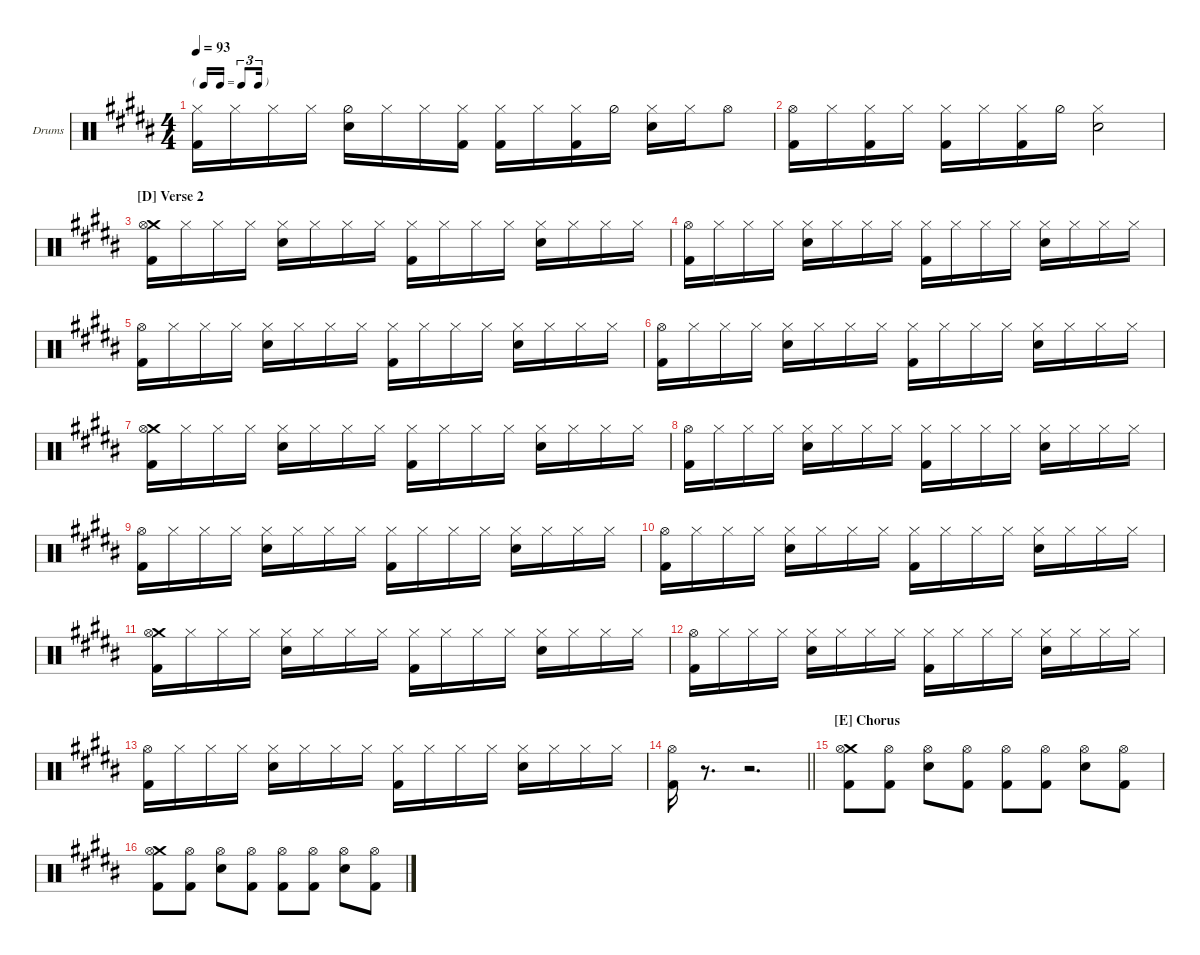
\hideDynamics
\bracketExtendMode groupsimilarinstruments
\firstSystemTrackNameOrientation horizontal
\otherSystemsTrackNameOrientation horizontal
\track ("Drumkit" "Drums") {multiBarRest instrument percussion}
\staff {score}
\articulation defaults
\ts (4 4)
\tf triplet16th
\tempo 93
\clef neutral
\ks b
("Kick (hit) 2"{acc forcenatural} "Hi-Hat (closed)"{acc forcenatural}).16{dy f} "Hi-Hat (closed)"{acc forcenatural}.16 "Hi-Hat (closed)"{acc forcenatural}.16{dy mf} "Hi-Hat (closed)"{acc forcenatural}.16{dy mp} ("Hi-Hat (half)"{acc forcenatural} "Snare (hit) 2"{acc forcenatural}).16{dy f} "Hi-Hat (closed)"{acc forcenatural}.16 "Hi-Hat (closed)"{acc forcenatural}.16{dy mf} ("Hi-Hat (closed)"{acc forcenatural} "Kick (hit) 2"{acc forcenatural}).16{dy mp} ("Hi-Hat (closed)"{acc forcenatural} "Kick (hit) 2"{acc forcenatural}).16{dy f} "Hi-Hat (closed)"{acc forcenatural}.16{dy mp} ("Hi-Hat (closed)"{acc forcenatural} "Kick (hit) 2"{acc forcenatural}).16{dy mf} "Hi-Hat (half)"{acc forcenatural}.16{dy mp} ("Hi-Hat (closed)"{acc forcenatural} "Snare (hit) 2"{acc forcenatural}).16{dy f} "Hi-Hat (closed)"{acc forcenatural}.16{dy mp} "Hi-Hat (open)"{acc forcenatural}.8{dy mf} |
("Hi-Hat (open)"{acc forcenatural} "Kick (hit) 2"{acc forcenatural}).16{dy f} "Hi-Hat (closed)"{acc forcenatural}.16{dy mp} ("Hi-Hat (closed)"{acc forcenatural} "Kick (hit) 2"{acc forcenatural}).16{dy mf} "Hi-Hat (closed)"{acc forcenatural}.16{dy mp} ("Hi-Hat (closed)"{acc forcenatural} "Kick (hit) 2"{acc forcenatural}).16{dy f} "Hi-Hat (closed)"{acc forcenatural}.16{dy mp} ("Hi-Hat (closed)"{acc forcenatural} "Kick (hit) 2"{acc forcenatural}).16{dy mf} "Hi-Hat (half)"{acc forcenatural}.16{dy mp} ("Hi-Hat (closed)"{acc forcenatural} "Snare (hit) 2"{acc forcenatural}).2{dy f} |
\section ("D" "Verse 2")
("Crash medium (hit)"{acc forcenatural} "Hi-Hat (open)"{acc forcenatural} "Kick (hit) 2"{acc forcenatural}).16 "Hi-Hat (closed)"{acc forcenatural}.16{dy mp} "Hi-Hat (closed)"{acc forcenatural}.16{dy mf} "Hi-Hat (closed)"{acc forcenatural}.16{dy mp} ("Hi-Hat (closed)"{acc forcenatural} "Snare (hit) 2"{acc forcenatural}).16{dy f} "Hi-Hat (closed)"{acc forcenatural}.16{dy mp} "Hi-Hat (closed)"{acc forcenatural}.16{dy mf} "Hi-Hat (closed)"{acc forcenatural}.16{dy mp} ("Hi-Hat (closed)"{acc forcenatural} "Kick (hit) 2"{acc forcenatural}).16{dy f} "Hi-Hat (closed)"{acc forcenatural}.16{dy mp} "Hi-Hat (closed)"{acc forcenatural}.16{dy mf} "Hi-Hat (closed)"{acc forcenatural}.16{dy mp} ("Hi-Hat (closed)"{acc forcenatural} "Snare (hit) 2"{acc forcenatural}).16{dy f} "Hi-Hat (closed)"{acc forcenatural}.16{dy mp} "Hi-Hat (closed)"{acc forcenatural}.16{dy mf} "Hi-Hat (closed)"{acc forcenatural}.16{dy mp} |
("Hi-Hat (open)"{acc forcenatural} "Kick (hit) 2"{acc forcenatural}).16{dy f} "Hi-Hat (closed)"{acc forcenatural}.16{dy mp} "Hi-Hat (closed)"{acc forcenatural}.16{dy mf} "Hi-Hat (closed)"{acc forcenatural}.16{dy mp} ("Hi-Hat (closed)"{acc forcenatural} "Snare (hit) 2"{acc forcenatural}).16{dy f} "Hi-Hat (closed)"{acc forcenatural}.16{dy mp} "Hi-Hat (closed)"{acc forcenatural}.16{dy mf} "Hi-Hat (closed)"{acc forcenatural}.16{dy mp} ("Hi-Hat (closed)"{acc forcenatural} "Kick (hit) 2"{acc forcenatural}).16{dy f} "Hi-Hat (closed)"{acc forcenatural}.16{dy mp} "Hi-Hat (closed)"{acc forcenatural}.16{dy mf} "Hi-Hat (closed)"{acc forcenatural}.16{dy mp} ("Hi-Hat (closed)"{acc forcenatural} "Snare (hit) 2"{acc forcenatural}).16{dy f} "Hi-Hat (closed)"{acc forcenatural}.16{dy mp} "Hi-Hat (closed)"{acc forcenatural}.16{dy mf} "Hi-Hat (closed)"{acc forcenatural}.16{dy mp} |
("Hi-Hat (open)"{acc forcenatural} "Kick (hit) 2"{acc forcenatural}).16{dy f} "Hi-Hat (closed)"{acc forcenatural}.16{dy mp} "Hi-Hat (closed)"{acc forcenatural}.16{dy mf} "Hi-Hat (closed)"{acc forcenatural}.16{dy mp} ("Hi-Hat (closed)"{acc forcenatural} "Snare (hit) 2"{acc forcenatural}).16{dy f} "Hi-Hat (closed)"{acc forcenatural}.16{dy mp} "Hi-Hat (closed)"{acc forcenatural}.16{dy mf} "Hi-Hat (closed)"{acc forcenatural}.16{dy mp} ("Hi-Hat (closed)"{acc forcenatural} "Kick (hit) 2"{acc forcenatural}).16{dy f} "Hi-Hat (closed)"{acc forcenatural}.16{dy mp} "Hi-Hat (closed)"{acc forcenatural}.16{dy mf} "Hi-Hat (closed)"{acc forcenatural}.16{dy mp} ("Hi-Hat (closed)"{acc forcenatural} "Snare (hit) 2"{acc forcenatural}).16{dy f} "Hi-Hat (closed)"{acc forcenatural}.16{dy mp} "Hi-Hat (closed)"{acc forcenatural}.16{dy mf} "Hi-Hat (closed)"{acc forcenatural}.16{dy mp} |
("Hi-Hat (open)"{acc forcenatural} "Kick (hit) 2"{acc forcenatural}).16{dy f} "Hi-Hat (closed)"{acc forcenatural}.16{dy mp} "Hi-Hat (closed)"{acc forcenatural}.16{dy mf} "Hi-Hat (closed)"{acc forcenatural}.16{dy mp} ("Hi-Hat (closed)"{acc forcenatural} "Snare (hit) 2"{acc forcenatural}).16{dy f} "Hi-Hat (closed)"{acc forcenatural}.16{dy mp} "Hi-Hat (closed)"{acc forcenatural}.16{dy mf} "Hi-Hat (closed)"{acc forcenatural}.16{dy mp} ("Hi-Hat (closed)"{acc forcenatural} "Kick (hit) 2"{acc forcenatural}).16{dy f} "Hi-Hat (closed)"{acc forcenatural}.16{dy mp} "Hi-Hat (closed)"{acc forcenatural}.16{dy mf} "Hi-Hat (closed)"{acc forcenatural}.16{dy mp} ("Hi-Hat (closed)"{acc forcenatural} "Snare (hit) 2"{acc forcenatural}).16{dy f} "Hi-Hat (closed)"{acc forcenatural}.16{dy mp} "Hi-Hat (closed)"{acc forcenatural}.16{dy mf} "Hi-Hat (closed)"{acc forcenatural}.16{dy mp} |
("Crash medium (hit)"{acc forcenatural} "Hi-Hat (open)"{acc forcenatural} "Kick (hit) 2"{acc forcenatural}).16{dy f} "Hi-Hat (closed)"{acc forcenatural}.16{dy mp} "Hi-Hat (closed)"{acc forcenatural}.16{dy mf} "Hi-Hat (closed)"{acc forcenatural}.16{dy mp} ("Hi-Hat (closed)"{acc forcenatural} "Snare (hit) 2"{acc forcenatural}).16{dy f} "Hi-Hat (closed)"{acc forcenatural}.16{dy mp} "Hi-Hat (closed)"{acc forcenatural}.16{dy mf} "Hi-Hat (closed)"{acc forcenatural}.16{dy mp} ("Hi-Hat (closed)"{acc forcenatural} "Kick (hit) 2"{acc forcenatural}).16{dy f} "Hi-Hat (closed)"{acc forcenatural}.16{dy mp} "Hi-Hat (closed)"{acc forcenatural}.16{dy mf} "Hi-Hat (closed)"{acc forcenatural}.16{dy mp} ("Hi-Hat (closed)"{acc forcenatural} "Snare (hit) 2"{acc forcenatural}).16{dy f} "Hi-Hat (closed)"{acc forcenatural}.16{dy mp} "Hi-Hat (closed)"{acc forcenatural}.16{dy mf} "Hi-Hat (closed)"{acc forcenatural}.16{dy mp} |
("Hi-Hat (open)"{acc forcenatural} "Kick (hit) 2"{acc forcenatural}).16{dy f} "Hi-Hat (closed)"{acc forcenatural}.16{dy mp} "Hi-Hat (closed)"{acc forcenatural}.16{dy mf} "Hi-Hat (closed)"{acc forcenatural}.16{dy mp} ("Hi-Hat (closed)"{acc forcenatural} "Snare (hit) 2"{acc forcenatural}).16{dy f} "Hi-Hat (closed)"{acc forcenatural}.16{dy mp} "Hi-Hat (closed)"{acc forcenatural}.16{dy mf} "Hi-Hat (closed)"{acc forcenatural}.16{dy mp} ("Hi-Hat (closed)"{acc forcenatural} "Kick (hit) 2"{acc forcenatural}).16{dy f} "Hi-Hat (closed)"{acc forcenatural}.16{dy mp} "Hi-Hat (closed)"{acc forcenatural}.16{dy mf} "Hi-Hat (closed)"{acc forcenatural}.16{dy mp} ("Hi-Hat (closed)"{acc forcenatural} "Snare (hit) 2"{acc forcenatural}).16{dy f} "Hi-Hat (closed)"{acc forcenatural}.16{dy mp} "Hi-Hat (closed)"{acc forcenatural}.16{dy mf} "Hi-Hat (closed)"{acc forcenatural}.16{dy mp} |
("Hi-Hat (open)"{acc forcenatural} "Kick (hit) 2"{acc forcenatural}).16{dy f} "Hi-Hat (closed)"{acc forcenatural}.16{dy mp} "Hi-Hat (closed)"{acc forcenatural}.16{dy mf} "Hi-Hat (closed)"{acc forcenatural}.16{dy mp} ("Hi-Hat (closed)"{acc forcenatural} "Snare (hit) 2"{acc forcenatural}).16{dy f} "Hi-Hat (closed)"{acc forcenatural}.16{dy mp} "Hi-Hat (closed)"{acc forcenatural}.16{dy mf} "Hi-Hat (closed)"{acc forcenatural}.16{dy mp} ("Hi-Hat (closed)"{acc forcenatural} "Kick (hit) 2"{acc forcenatural}).16{dy f} "Hi-Hat (closed)"{acc forcenatural}.16{dy mp} "Hi-Hat (closed)"{acc forcenatural}.16{dy mf} "Hi-Hat (closed)"{acc forcenatural}.16{dy mp} ("Hi-Hat (closed)"{acc forcenatural} "Snare (hit) 2"{acc forcenatural}).16{dy f} "Hi-Hat (closed)"{acc forcenatural}.16{dy mp} "Hi-Hat (closed)"{acc forcenatural}.16{dy mf} "Hi-Hat (closed)"{acc forcenatural}.16{dy mp} |
("Hi-Hat (open)"{acc forcenatural} "Kick (hit) 2"{acc forcenatural}).16{dy f} "Hi-Hat (closed)"{acc forcenatural}.16{dy mp} "Hi-Hat (closed)"{acc forcenatural}.16{dy mf} "Hi-Hat (closed)"{acc forcenatural}.16{dy mp} ("Hi-Hat (closed)"{acc forcenatural} "Snare (hit) 2"{acc forcenatural}).16{dy f} "Hi-Hat (closed)"{acc forcenatural}.16{dy mp} "Hi-Hat (closed)"{acc forcenatural}.16{dy mf} "Hi-Hat (closed)"{acc forcenatural}.16{dy mp} ("Hi-Hat (closed)"{acc forcenatural} "Kick (hit) 2"{acc forcenatural}).16{dy f} "Hi-Hat (closed)"{acc forcenatural}.16{dy mp} "Hi-Hat (closed)"{acc forcenatural}.16{dy mf} "Hi-Hat (closed)"{acc forcenatural}.16{dy mp} ("Hi-Hat (closed)"{acc forcenatural} "Snare (hit) 2"{acc forcenatural}).16{dy f} "Hi-Hat (closed)"{acc forcenatural}.16{dy mp} "Hi-Hat (closed)"{acc forcenatural}.16{dy mf} "Hi-Hat (closed)"{acc forcenatural}.16{dy mp} |
("Crash medium (hit)"{acc forcenatural} "Hi-Hat (open)"{acc forcenatural} "Kick (hit) 2"{acc forcenatural}).16{dy f} "Hi-Hat (closed)"{acc forcenatural}.16{dy mp} "Hi-Hat (closed)"{acc forcenatural}.16{dy mf} "Hi-Hat (closed)"{acc forcenatural}.16{dy mp} ("Hi-Hat (closed)"{acc forcenatural} "Snare (hit) 2"{acc forcenatural}).16{dy f} "Hi-Hat (closed)"{acc forcenatural}.16{dy mp} "Hi-Hat (closed)"{acc forcenatural}.16{dy mf} "Hi-Hat (closed)"{acc forcenatural}.16{dy mp} ("Hi-Hat (closed)"{acc forcenatural} "Kick (hit) 2"{acc forcenatural}).16{dy f} "Hi-Hat (closed)"{acc forcenatural}.16{dy mp} "Hi-Hat (closed)"{acc forcenatural}.16{dy mf} "Hi-Hat (closed)"{acc forcenatural}.16{dy mp} ("Hi-Hat (closed)"{acc forcenatural} "Snare (hit) 2"{acc forcenatural}).16{dy f} "Hi-Hat (closed)"{acc forcenatural}.16{dy mp} "Hi-Hat (closed)"{acc forcenatural}.16{dy mf} "Hi-Hat (closed)"{acc forcenatural}.16{dy mp} |
("Hi-Hat (open)"{acc forcenatural} "Kick (hit) 2"{acc forcenatural}).16{dy f} "Hi-Hat (closed)"{acc forcenatural}.16{dy mp} "Hi-Hat (closed)"{acc forcenatural}.16{dy mf} "Hi-Hat (closed)"{acc forcenatural}.16{dy mp} ("Hi-Hat (closed)"{acc forcenatural} "Snare (hit) 2"{acc forcenatural}).16{dy f} "Hi-Hat (closed)"{acc forcenatural}.16{dy mp} "Hi-Hat (closed)"{acc forcenatural}.16{dy mf} "Hi-Hat (closed)"{acc forcenatural}.16{dy mp} ("Hi-Hat (closed)"{acc forcenatural} "Kick (hit) 2"{acc forcenatural}).16{dy f} "Hi-Hat (closed)"{acc forcenatural}.16{dy mp} "Hi-Hat (closed)"{acc forcenatural}.16{dy mf} "Hi-Hat (closed)"{acc forcenatural}.16{dy mp} ("Hi-Hat (closed)"{acc forcenatural} "Snare (hit) 2"{acc forcenatural}).16{dy f} "Hi-Hat (closed)"{acc forcenatural}.16{dy mp} "Hi-Hat (closed)"{acc forcenatural}.16{dy mf} "Hi-Hat (closed)"{acc forcenatural}.16{dy mp} |
("Hi-Hat (open)"{acc forcenatural} "Kick (hit) 2"{acc forcenatural}).16{dy f} "Hi-Hat (closed)"{acc forcenatural}.16{dy mp} "Hi-Hat (closed)"{acc forcenatural}.16{dy mf} "Hi-Hat (closed)"{acc forcenatural}.16{dy mp} ("Hi-Hat (closed)"{acc forcenatural} "Snare (hit) 2"{acc forcenatural}).16{dy f} "Hi-Hat (closed)"{acc forcenatural}.16{dy mp} "Hi-Hat (closed)"{acc forcenatural}.16{dy mf} "Hi-Hat (closed)"{acc forcenatural}.16{dy mp} ("Hi-Hat (closed)"{acc forcenatural} "Kick (hit) 2"{acc forcenatural}).16{dy f} "Hi-Hat (closed)"{acc forcenatural}.16{dy mp} "Hi-Hat (closed)"{acc forcenatural}.16{dy mf} "Hi-Hat (closed)"{acc forcenatural}.16{dy mp} ("Hi-Hat (closed)"{acc forcenatural} "Snare (hit) 2"{acc forcenatural}).16{dy f} "Hi-Hat (closed)"{acc forcenatural}.16{dy mp} "Hi-Hat (closed)"{acc forcenatural}.16{dy mf} "Hi-Hat (closed)"{acc forcenatural}.16{dy mp} |
\barLineRight lightlight
("Hi-Hat (open)"{acc forcenatural} "Kick (hit) 2"{acc forcenatural}).16{dy f} r.8{d} r.2{d} |
\section ("E" "Chorus")
("Crash medium (hit)"{acc forcenatural} "Hi-Hat (open)"{acc forcenatural} "Kick (hit) 2"{acc forcenatural}).8 ("Hi-Hat (open)"{acc forcenatural} "Kick (hit) 2"{acc forcenatural}).8 ("Hi-Hat (open)"{acc forcenatural} "Snare (hit) 2"{acc forcenatural}).8 ("Hi-Hat (open)"{acc forcenatural} "Kick (hit) 2"{acc forcenatural}).8 ("Hi-Hat (open)"{acc forcenatural} "Kick (hit) 2"{acc forcenatural}).8 ("Hi-Hat (open)"{acc forcenatural} "Kick (hit) 2"{acc forcenatural}).8 ("Hi-Hat (open)"{acc forcenatural} "Snare (hit) 2"{acc forcenatural}).8 ("Hi-Hat (open)"{acc forcenatural} "Kick (hit) 2"{acc forcenatural}).8 |
("Crash medium (hit)"{acc forcenatural} "Hi-Hat (open)"{acc forcenatural} "Kick (hit) 2"{acc forcenatural}).8 ("Hi-Hat (open)"{acc forcenatural} "Kick (hit) 2"{acc forcenatural}).8 ("Hi-Hat (open)"{acc forcenatural} "Snare (hit) 2"{acc forcenatural}).8 ("Hi-Hat (open)"{acc forcenatural} "Kick (hit) 2"{acc forcenatural}).8 ("Hi-Hat (open)"{acc forcenatural} "Kick (hit) 2"{acc forcenatural}).8 ("Hi-Hat (open)"{acc forcenatural} "Kick (hit) 2"{acc forcenatural}).8 ("Hi-Hat (open)"{acc forcenatural} "Snare (hit) 2"{acc forcenatural}).8 ("Hi-Hat (open)"{acc forcenatural} "Kick (hit) 2"{acc forcenatural}).8
